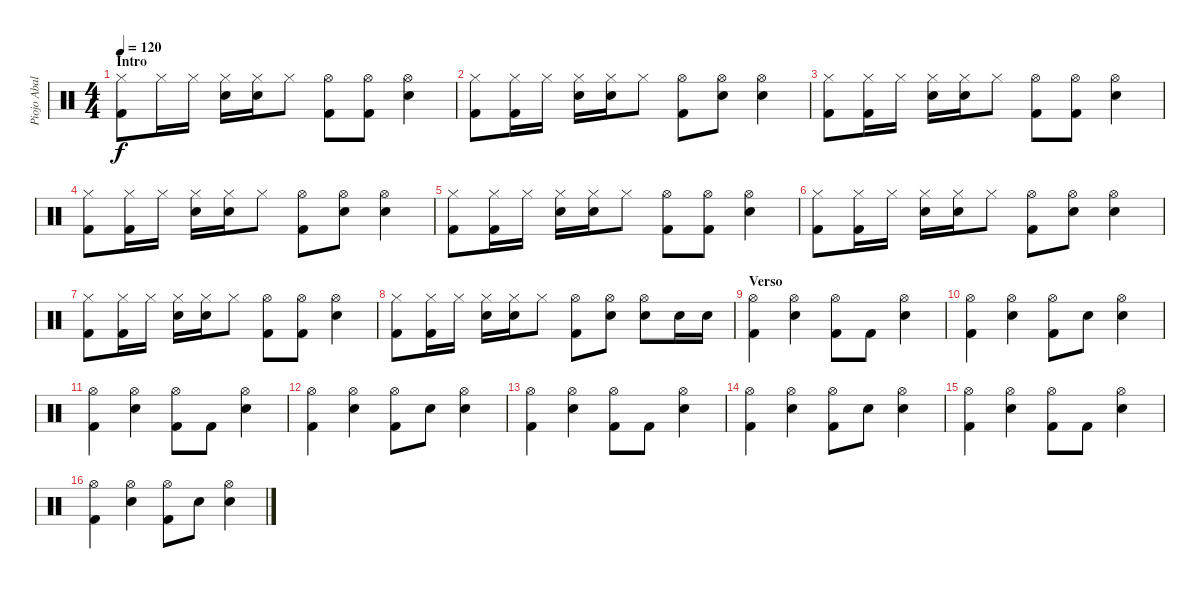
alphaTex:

\track ("Piojo Abalos" "Piojo Abal") {instrument percussion}
\staff {score}
\articulation defaults
\ts (4 4)
\section ("" "Intro")
\tempo 120
\clef neutral
\ks c
("Hi-Hat (closed)" "Kick (hit) 2").8{dy f} "Hi-Hat (closed)".16 "Hi-Hat (closed)".16 ("Hi-Hat (closed)" "Electric Snare (hit)").16 ("Hi-Hat (closed)" "Electric Snare (hit)").16 "Hi-Hat (closed)".8 ("Hi-Hat (open)" "Kick (hit) 2").8 ("Hi-Hat (open)" "Kick (hit) 2").8 ("Hi-Hat (open)" "Electric Snare (hit)").4 |
("Hi-Hat (closed)" "Kick (hit) 2").8 ("Hi-Hat (closed)" "Kick (hit) 2").16 "Hi-Hat (closed)".16 ("Hi-Hat (closed)" "Electric Snare (hit)").16 ("Hi-Hat (closed)" "Electric Snare (hit)").16 "Hi-Hat (closed)".8 ("Hi-Hat (open)" "Kick (hit) 2").8 ("Hi-Hat (open)" "Electric Snare (hit)").8 ("Hi-Hat (open)" "Electric Snare (hit)").4 |
("Hi-Hat (closed)" "Kick (hit) 2").8 ("Hi-Hat (closed)" "Kick (hit) 2").16 "Hi-Hat (closed)".16 ("Hi-Hat (closed)" "Electric Snare (hit)").16 ("Hi-Hat (closed)" "Electric Snare (hit)").16 "Hi-Hat (closed)".8 ("Hi-Hat (open)" "Kick (hit) 2").8 ("Hi-Hat (open)" "Kick (hit) 2").8 ("Hi-Hat (open)" "Electric Snare (hit)").4 |
("Hi-Hat (closed)" "Kick (hit) 2").8 ("Hi-Hat (closed)" "Kick (hit) 2").16 "Hi-Hat (closed)".16 ("Hi-Hat (closed)" "Electric Snare (hit)").16 ("Hi-Hat (closed)" "Electric Snare (hit)").16 "Hi-Hat (closed)".8 ("Hi-Hat (open)" "Kick (hit) 2").8 ("Hi-Hat (open)" "Electric Snare (hit)").8 ("Hi-Hat (open)" "Electric Snare (hit)").4 |
("Hi-Hat (closed)" "Kick (hit) 2").8 ("Hi-Hat (closed)" "Kick (hit) 2").16 "Hi-Hat (closed)".16 ("Hi-Hat (closed)" "Electric Snare (hit)").16 ("Hi-Hat (closed)" "Electric Snare (hit)").16 "Hi-Hat (closed)".8 ("Hi-Hat (open)" "Kick (hit) 2").8 ("Hi-Hat (open)" "Kick (hit) 2").8 ("Hi-Hat (open)" "Electric Snare (hit)").4 |
("Hi-Hat (closed)" "Kick (hit) 2").8 ("Hi-Hat (closed)" "Kick (hit) 2").16 "Hi-Hat (closed)".16 ("Hi-Hat (closed)" "Electric Snare (hit)").16 ("Hi-Hat (closed)" "Electric Snare (hit)").16 "Hi-Hat (closed)".8 ("Hi-Hat (open)" "Kick (hit) 2").8 ("Hi-Hat (open)" "Electric Snare (hit)").8 ("Hi-Hat (open)" "Electric Snare (hit)").4 |
("Hi-Hat (closed)" "Kick (hit) 2").8 ("Hi-Hat (closed)" "Kick (hit) 2").16 "Hi-Hat (closed)".16 ("Hi-Hat (closed)" "Electric Snare (hit)").16 ("Hi-Hat (closed)" "Electric Snare (hit)").16 "Hi-Hat (closed)".8 ("Hi-Hat (open)" "Kick (hit) 2").8 ("Hi-Hat (open)" "Kick (hit) 2").8 ("Hi-Hat (open)" "Electric Snare (hit)").4 |
("Hi-Hat (closed)" "Kick (hit) 2").8 ("Hi-Hat (closed)" "Kick (hit) 2").16 "Hi-Hat (closed)".16 ("Hi-Hat (closed)" "Electric Snare (hit)").16 ("Hi-Hat (closed)" "Electric Snare (hit)").16 "Hi-Hat (closed)".8 ("Hi-Hat (open)" "Kick (hit) 2").8 ("Hi-Hat (open)" "Electric Snare (hit)").8 ("Hi-Hat (open)" "Electric Snare (hit)").8 "Electric Snare (hit)".16 "Electric Snare (hit)".16 |
\section ("" "Verso")
("Hi-Hat (open)" "Kick (hit) 2").4 ("Hi-Hat (open)" "Electric Snare (hit)").4 ("Hi-Hat (open)" "Kick (hit) 2").8 "Kick (hit) 2".8 ("Hi-Hat (open)" "Electric Snare (hit)").4 |
("Hi-Hat (open)" "Kick (hit) 2").4 ("Hi-Hat (open)" "Electric Snare (hit)").4 ("Hi-Hat (open)" "Kick (hit) 2").8 "Electric Snare (hit)".8 ("Hi-Hat (open)" "Electric Snare (hit)").4 |
("Hi-Hat (open)" "Kick (hit) 2").4 ("Hi-Hat (open)" "Electric Snare (hit)").4 ("Hi-Hat (open)" "Kick (hit) 2").8 "Kick (hit) 2".8 ("Hi-Hat (open)" "Electric Snare (hit)").4 |
("Hi-Hat (open)" "Kick (hit) 2").4 ("Hi-Hat (open)" "Electric Snare (hit)").4 ("Hi-Hat (open)" "Kick (hit) 2").8 "Electric Snare (hit)".8 ("Hi-Hat (open)" "Electric Snare (hit)").4 |
("Hi-Hat (open)" "Kick (hit) 2").4 ("Hi-Hat (open)" "Electric Snare (hit)").4 ("Hi-Hat (open)" "Kick (hit) 2").8 "Kick (hit) 2".8 ("Hi-Hat (open)" "Electric Snare (hit)").4 |
("Hi-Hat (open)" "Kick (hit) 2").4 ("Hi-Hat (open)" "Electric Snare (hit)").4 ("Hi-Hat (open)" "Kick (hit) 2").8 "Electric Snare (hit)".8 ("Hi-Hat (open)" "Electric Snare (hit)").4 |
("Hi-Hat (open)" "Kick (hit) 2").4 ("Hi-Hat (open)" "Electric Snare (hit)").4 ("Hi-Hat (open)" "Kick (hit) 2").8 "Kick (hit) 2".8 ("Hi-Hat (open)" "Electric Snare (hit)").4 |
("Hi-Hat (open)" "Kick (hit) 2").4 ("Hi-Hat (open)" "Electric Snare (hit)").4 ("Hi-Hat (open)" "Kick (hit) 2").8 "Electric Snare (hit)".8 ("Hi-Hat (open)" "Electric Snare (hit)").4
